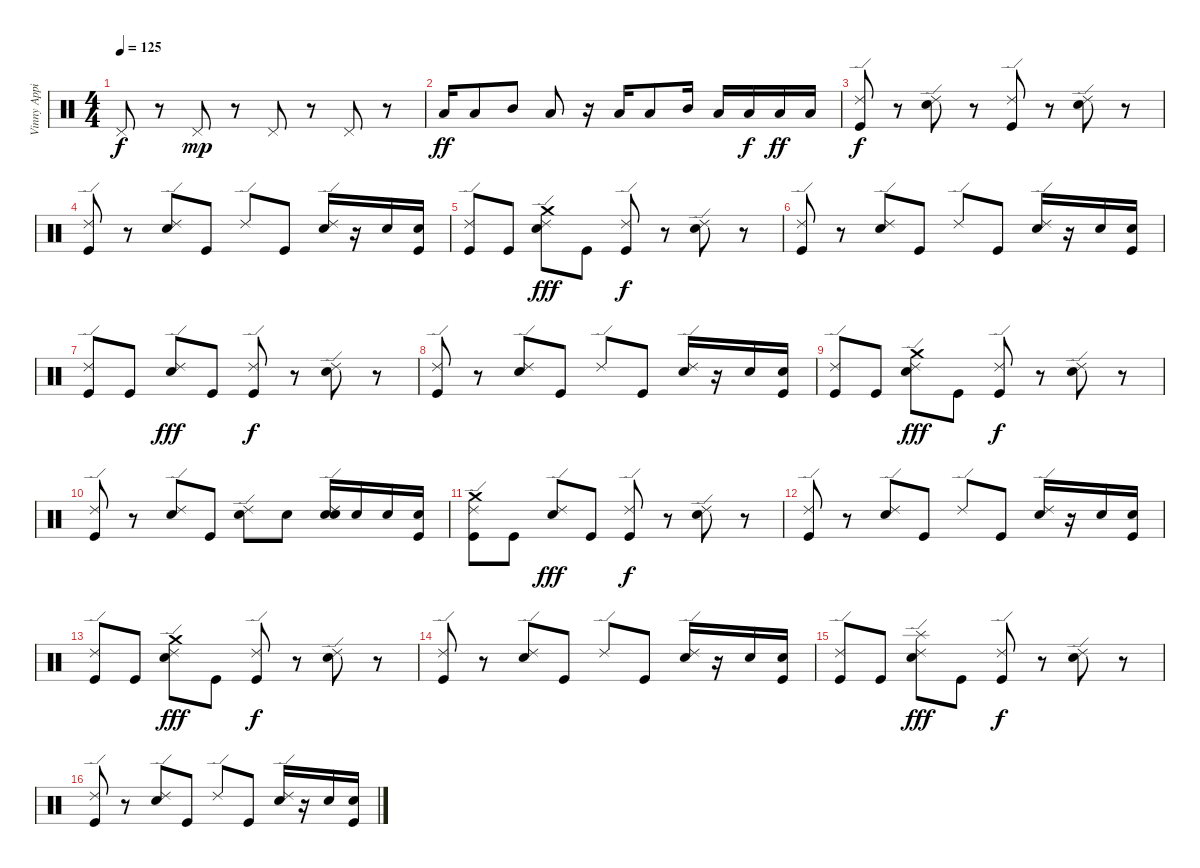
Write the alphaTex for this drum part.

\track ("Vinny Appice - Drums" "Vinny Appi") {instrument percussion}
\staff {score}
\articulation defaults
\ts (4 4)
\tempo 125
\clef neutral
\ks c "Pedal Hi-Hat (hit)".8{dy f}
r.8 "Pedal Hi-Hat (hit)".8{dy mp} r.8 "Pedal Hi-Hat (hit)".8 r.8 "Pedal Hi-Hat (hit)".8 r.8 |
"Low Tom (hit)".16{dy ff} "Low Tom (hit)".8 "Mid Tom (hit)".8 "Low Tom (hit)".8 r.16 "Low Tom (hit)".16 "Low Tom (hit)".8 "Mid Tom (hit)".16 "Low Tom (hit)".16 "Low Tom (hit)".16{dy f} "Low Tom (hit)".16{dy ff} "Low Tom (hit)".16 |
("Ride (edge) 2" "Kick (hit)").8{dy f} r.8 ("Ride (edge) 2" "Snare (hit) 2").8 r.8 ("Ride (edge) 2" "Kick (hit)").8 r.8 ("Ride (edge) 2" "Snare (hit) 2").8 r.8 |
("Ride (edge) 2" "Kick (hit)").8 r.8 ("Ride (edge) 2" "Snare (hit) 2").8 "Kick (hit)".8 "Ride (edge) 2".8 "Kick (hit)".8 ("Ride (edge) 2" "Snare (hit) 2").16 r.16 "Snare (hit) 2".16 ("Kick (hit)" "Snare (hit) 2").16 |
("Kick (hit)" "Ride (edge) 2").8 "Kick (hit)".8 ("Ride (edge) 2" "Snare (hit) 2" "Crash medium (hit)").8{dy fff} "Kick (hit)".8 ("Ride (edge) 2" "Kick (hit)").8{dy f} r.8 ("Ride (edge) 2" "Snare (hit) 2").8 r.8 |
("Ride (edge) 2" "Kick (hit)").8 r.8 ("Ride (edge) 2" "Snare (hit) 2").8 "Kick (hit)".8 "Ride (edge) 2".8 "Kick (hit)".8 ("Ride (edge) 2" "Snare (hit) 2").16 r.16 "Snare (hit) 2".16 ("Kick (hit)" "Snare (hit) 2").16 |
("Kick (hit)" "Ride (edge) 2").8 "Kick (hit)".8 ("Ride (edge) 2" "Snare (hit) 2").8{dy fff} "Kick (hit)".8 ("Ride (edge) 2" "Kick (hit)").8{dy f} r.8 ("Ride (edge) 2" "Snare (hit) 2").8 r.8 |
("Ride (edge) 2" "Kick (hit)").8 r.8 ("Ride (edge) 2" "Snare (hit) 2").8 "Kick (hit)".8 "Ride (edge) 2".8 "Kick (hit)".8 ("Ride (edge) 2" "Snare (hit) 2").16 r.16 "Snare (hit) 2".16 ("Kick (hit)" "Snare (hit) 2").16 |
("Kick (hit)" "Ride (edge) 2").8 "Kick (hit)".8 ("Ride (edge) 2" "Snare (hit) 2" "Crash medium (hit)").8{dy fff} "Kick (hit)".8 ("Ride (edge) 2" "Kick (hit)").8{dy f} r.8 ("Ride (edge) 2" "Snare (hit) 2").8 r.8 |
("Ride (edge) 2" "Kick (hit)").8 r.8 ("Ride (edge) 2" "Snare (hit) 2").8 "Kick (hit)".8 ("Ride (edge) 2" "Snare (hit) 2").8 "Snare (hit) 2".8 ("Ride (edge) 2" "Snare (hit) 2" "Snare (hit) 2").16 "Snare (hit) 2".16 "Snare (hit) 2".16 ("Kick (hit)" "Snare (hit) 2").16 |
("Kick (hit)" "Ride (edge) 2" "Crash medium (hit)").8 "Kick (hit)".8 ("Ride (edge) 2" "Snare (hit) 2").8{dy fff} "Kick (hit)".8 ("Ride (edge) 2" "Kick (hit)").8{dy f} r.8 ("Ride (edge) 2" "Snare (hit) 2").8 r.8 |
("Ride (edge) 2" "Kick (hit)").8 r.8 ("Ride (edge) 2" "Snare (hit) 2").8 "Kick (hit)".8 "Ride (edge) 2".8 "Kick (hit)".8 ("Ride (edge) 2" "Snare (hit) 2").16 r.16 "Snare (hit) 2".16 ("Kick (hit)" "Snare (hit) 2").16 |
("Kick (hit)" "Ride (edge) 2").8 "Kick (hit)".8 ("Ride (edge) 2" "Snare (hit) 2" "Crash medium (hit)").8{dy fff} "Kick (hit)".8 ("Ride (edge) 2" "Kick (hit)").8{dy f} r.8 ("Ride (edge) 2" "Snare (hit) 2").8 r.8 |
("Ride (edge) 2" "Kick (hit)").8 r.8 ("Ride (edge) 2" "Snare (hit) 2").8 "Kick (hit)".8 "Ride (edge) 2".8 "Kick (hit)".8 ("Ride (edge) 2" "Snare (hit) 2").16 r.16 "Snare (hit) 2".16 ("Kick (hit)" "Snare (hit) 2").16 |
("Kick (hit)" "Ride (edge) 2").8 "Kick (hit)".8 ("Ride (edge) 2" "Snare (hit) 2" "Splash (hit)").8{dy fff} "Kick (hit)".8 ("Ride (edge) 2" "Kick (hit)").8{dy f} r.8 ("Ride (edge) 2" "Snare (hit) 2").8 r.8 |
("Ride (edge) 2" "Kick (hit)").8 r.8 ("Ride (edge) 2" "Snare (hit) 2").8 "Kick (hit)".8 "Ride (edge) 2".8 "Kick (hit)".8 ("Ride (edge) 2" "Snare (hit) 2").16 r.16 "Snare (hit) 2".16 ("Kick (hit)" "Snare (hit) 2").16
